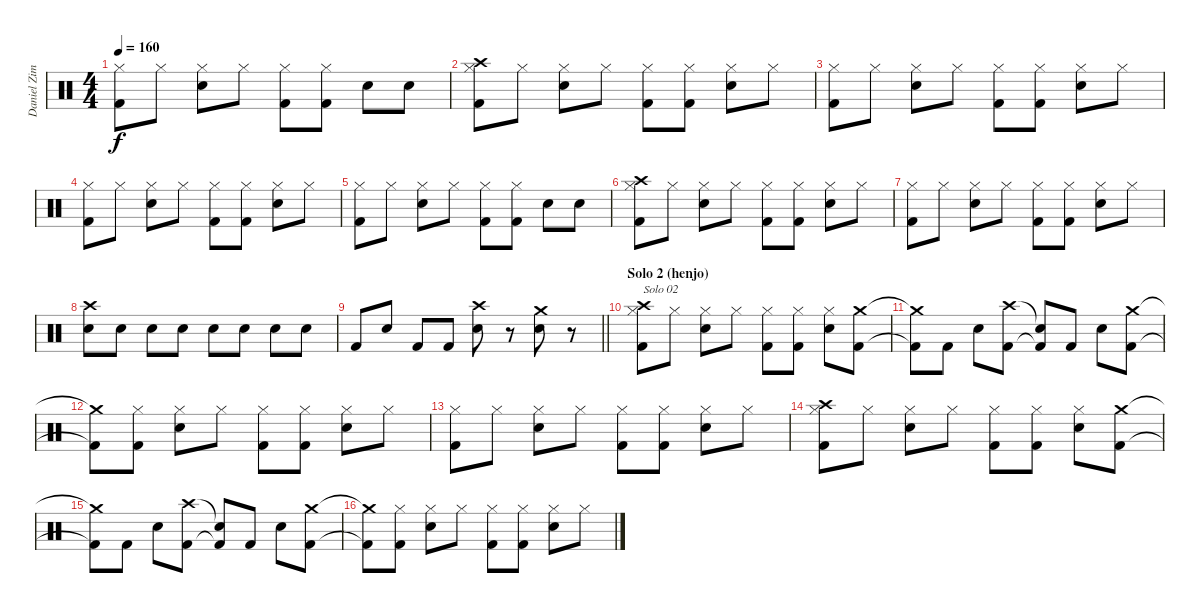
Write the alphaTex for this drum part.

\track ("Daniel Zimmermann" "Daniel Zim") {instrument percussion}
\staff {score}
\articulation defaults
\ts (4 4)
\tempo 160
\clef neutral
\ks c
("Hi-Hat (closed)" "Kick (hit) 2").8{dy f} "Hi-Hat (closed)".8 ("Hi-Hat (closed)" "Snare (hit) 2").8 "Hi-Hat (closed)".8 ("Hi-Hat (closed)" "Kick (hit) 2").8 ("Hi-Hat (closed)" "Kick (hit) 2").8 "Snare (hit) 2".8 "Snare (hit) 2".8 |
("Hi-Hat (closed)" "Kick (hit) 2" "Crash high (hit)").8 "Hi-Hat (closed)".8 ("Hi-Hat (closed)" "Snare (hit) 2").8 "Hi-Hat (closed)".8 ("Hi-Hat (closed)" "Kick (hit) 2").8 ("Hi-Hat (closed)" "Kick (hit) 2").8 ("Hi-Hat (closed)" "Snare (hit) 2").8 "Hi-Hat (closed)".8 |
("Hi-Hat (closed)" "Kick (hit) 2").8 "Hi-Hat (closed)".8 ("Hi-Hat (closed)" "Snare (hit) 2").8 "Hi-Hat (closed)".8 ("Hi-Hat (closed)" "Kick (hit) 2").8 ("Hi-Hat (closed)" "Kick (hit) 2").8 ("Hi-Hat (closed)" "Snare (hit) 2").8 "Hi-Hat (closed)".8 |
("Hi-Hat (closed)" "Kick (hit) 2").8 "Hi-Hat (closed)".8 ("Hi-Hat (closed)" "Snare (hit) 2").8 "Hi-Hat (closed)".8 ("Hi-Hat (closed)" "Kick (hit) 2").8 ("Hi-Hat (closed)" "Kick (hit) 2").8 ("Hi-Hat (closed)" "Snare (hit) 2").8 "Hi-Hat (closed)".8 |
("Hi-Hat (closed)" "Kick (hit) 2").8 "Hi-Hat (closed)".8 ("Hi-Hat (closed)" "Snare (hit) 2").8 "Hi-Hat (closed)".8 ("Hi-Hat (closed)" "Kick (hit) 2").8 ("Hi-Hat (closed)" "Kick (hit) 2").8 "Snare (hit) 2".8 "Snare (hit) 2".8 |
("Hi-Hat (closed)" "Kick (hit) 2" "Crash high (hit)").8 "Hi-Hat (closed)".8 ("Hi-Hat (closed)" "Snare (hit) 2").8 "Hi-Hat (closed)".8 ("Hi-Hat (closed)" "Kick (hit) 2").8 ("Hi-Hat (closed)" "Kick (hit) 2").8 ("Hi-Hat (closed)" "Snare (hit) 2").8 "Hi-Hat (closed)".8 |
("Hi-Hat (closed)" "Kick (hit) 2").8 "Hi-Hat (closed)".8 ("Hi-Hat (closed)" "Snare (hit) 2").8 "Hi-Hat (closed)".8 ("Hi-Hat (closed)" "Kick (hit) 2").8 ("Hi-Hat (closed)" "Kick (hit) 2").8 ("Hi-Hat (closed)" "Snare (hit) 2").8 "Hi-Hat (closed)".8 |
("Snare (hit) 2" "Crash high (hit)").8 "Snare (hit) 2".8 "Snare (hit) 2".8 "Snare (hit) 2".8 "Snare (hit) 2".8 "Snare (hit) 2".8 "Snare (hit) 2".8 "Snare (hit) 2".8 |
\barLineRight lightlight "Kick (hit) 2".8 "Snare (hit) 2".8 "Kick (hit) 2".8 "Kick (hit) 2".8
("Snare (hit) 2" "Crash high (hit)").8 r.8 ("Snare (hit) 2" "Crash medium (hit)").8 r.8 |
\section ("" "Solo 2 (henjo)")
("Hi-Hat (closed)" "Kick (hit) 2" "Crash high (hit)").8{txt "Solo 02"} "Hi-Hat (closed)".8 ("Hi-Hat (closed)" "Snare (hit) 2").8 "Hi-Hat (closed)".8 ("Hi-Hat (closed)" "Kick (hit) 2").8 ("Hi-Hat (closed)" "Kick (hit) 2").8 ("Hi-Hat (closed)" "Snare (hit) 2").8 ("Kick (hit) 2" "Crash medium (hit)").8 |
("Kick (hit) 2"{t} "Crash medium (hit)"{t}).8 "Kick (hit) 2".8 "Snare (hit) 2".8 ("Kick (hit) 2" "Crash high (hit)").8 ("Kick (hit) 2"{t} "Snare (hit)"{t}).8 "Kick (hit) 2".8 "Snare (hit) 2".8 ("Kick (hit) 2" "Crash medium (hit)").8 |
("Kick (hit) 2"{t} "Crash medium (hit)"{t}).8 ("Hi-Hat (closed)" "Kick (hit) 2").8 ("Hi-Hat (closed)" "Snare (hit) 2").8 "Hi-Hat (closed)".8 ("Hi-Hat (closed)" "Kick (hit) 2").8 ("Hi-Hat (closed)" "Kick (hit) 2").8 ("Hi-Hat (closed)" "Snare (hit) 2").8 "Hi-Hat (closed)".8 |
("Hi-Hat (closed)" "Kick (hit) 2").8 "Hi-Hat (closed)".8 ("Hi-Hat (closed)" "Snare (hit) 2").8 "Hi-Hat (closed)".8 ("Hi-Hat (closed)" "Kick (hit) 2").8 ("Hi-Hat (closed)" "Kick (hit) 2").8 ("Hi-Hat (closed)" "Snare (hit) 2").8 "Hi-Hat (closed)".8 |
("Hi-Hat (closed)" "Kick (hit) 2" "Crash high (hit)").8 "Hi-Hat (closed)".8 ("Hi-Hat (closed)" "Snare (hit) 2").8 "Hi-Hat (closed)".8 ("Hi-Hat (closed)" "Kick (hit) 2").8 ("Hi-Hat (closed)" "Kick (hit) 2").8 ("Hi-Hat (closed)" "Snare (hit) 2").8 ("Kick (hit) 2" "Crash medium (hit)").8 |
("Kick (hit) 2"{t} "Crash medium (hit)"{t}).8 "Kick (hit) 2".8 "Snare (hit) 2".8 ("Kick (hit) 2" "Crash high (hit)").8 ("Kick (hit) 2"{t} "Snare (hit)"{t}).8 "Kick (hit) 2".8 "Snare (hit) 2".8 ("Kick (hit) 2" "Crash medium (hit)").8 |
("Kick (hit) 2"{t} "Crash medium (hit)"{t}).8 ("Hi-Hat (closed)" "Kick (hit) 2").8 ("Hi-Hat (closed)" "Snare (hit) 2").8 "Hi-Hat (closed)".8 ("Hi-Hat (closed)" "Kick (hit) 2").8 ("Hi-Hat (closed)" "Kick (hit) 2").8 ("Hi-Hat (closed)" "Snare (hit) 2").8 "Hi-Hat (closed)".8
